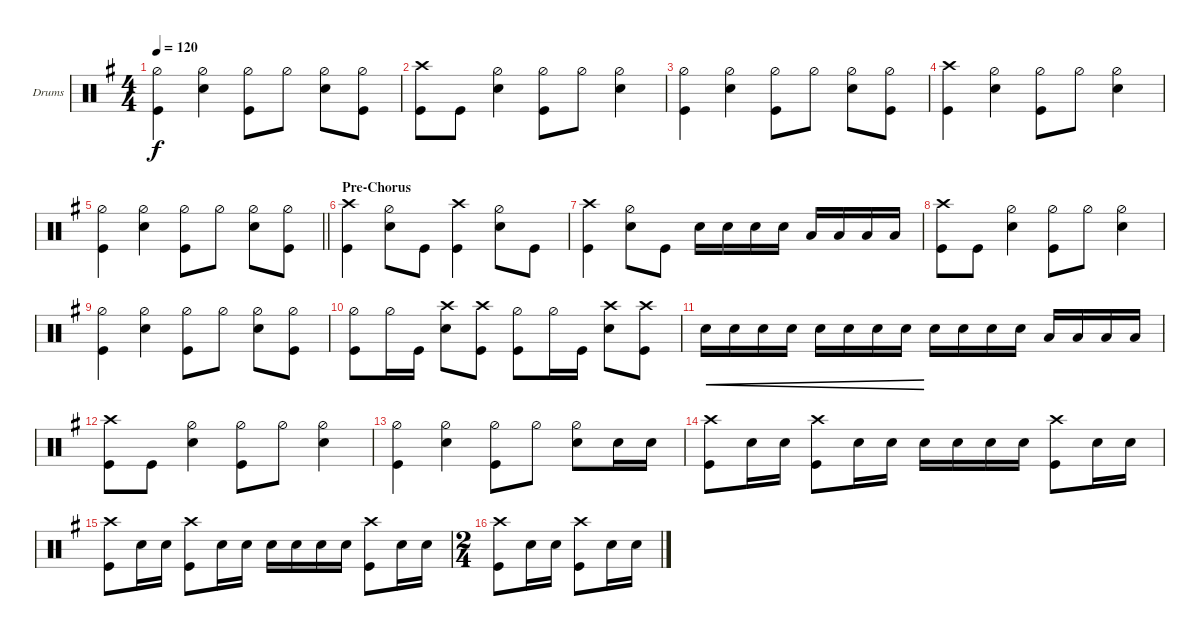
\defaultSystemsLayout 4
\bracketExtendMode groupsimilarinstruments
\firstSystemTrackNameOrientation horizontal
\otherSystemsTrackNameOrientation horizontal
\track ("Drums" "Drums") {instrument percussion}
\staff {score}
\articulation defaults
\ts (4 4)
\tempo 120
\clef neutral
\ks g
("Kick (hit)" "Hi-Hat (half)").4{dy f} ("Snare (hit) 2" "Hi-Hat (half)").4 ("Kick (hit)" "Hi-Hat (half)").8 "Hi-Hat (half)".8 ("Snare (hit) 2" "Hi-Hat (half)").8 ("Kick (hit)" "Hi-Hat (half)").8 |
("Kick (hit)" "Crash high (hit)").8 "Kick (hit)".8 ("Snare (hit) 2" "Hi-Hat (half)").4 ("Kick (hit)" "Hi-Hat (half)").8 "Hi-Hat (half)".8 ("Snare (hit) 2" "Hi-Hat (half)").4 |
("Kick (hit)" "Hi-Hat (half)").4 ("Snare (hit) 2" "Hi-Hat (half)").4 ("Kick (hit)" "Hi-Hat (half)").8 "Hi-Hat (half)".8 ("Snare (hit) 2" "Hi-Hat (half)").8 ("Kick (hit)" "Hi-Hat (half)").8 |
("Kick (hit)" "Crash high (hit)").4 ("Snare (hit) 2" "Hi-Hat (half)").4 ("Kick (hit)" "Hi-Hat (half)").8 "Hi-Hat (half)".8 ("Snare (hit) 2" "Hi-Hat (half)").4 |
\barLineRight lightlight
("Kick (hit)" "Hi-Hat (half)").4 ("Snare (hit) 2" "Hi-Hat (half)").4 ("Kick (hit)" "Hi-Hat (half)").8 "Hi-Hat (half)".8 ("Snare (hit) 2" "Hi-Hat (half)").8 ("Kick (hit)" "Hi-Hat (half)").8 |
\section ("" "Pre-Chorus")
("Kick (hit)" "Crash high (hit)").4 ("Hi-Hat (half)" "Snare (hit) 2").8 "Kick (hit)".8 ("Kick (hit)" "Crash high (hit)").4 ("Hi-Hat (half)" "Snare (hit) 2").8 "Kick (hit)".8 |
("Kick (hit)" "Crash high (hit)").4 ("Hi-Hat (half)" "Snare (hit) 2").8 "Kick (hit)".8 "Snare (hit) 2".16 "Snare (hit) 2".16 "Snare (hit) 2".16 "Snare (hit) 2".16 "Low Tom (hit)".16 "Low Tom (hit)".16 "Low Tom (hit)".16 "Low Tom (hit)".16 |
("Kick (hit)" "Crash high (hit)").8 "Kick (hit)".8 ("Snare (hit) 2" "Hi-Hat (half)").4 ("Kick (hit)" "Hi-Hat (half)").8 "Hi-Hat (half)".8 ("Snare (hit) 2" "Hi-Hat (half)").4 |
("Kick (hit)" "Hi-Hat (half)").4 ("Snare (hit) 2" "Hi-Hat (half)").4 ("Kick (hit)" "Hi-Hat (half)").8 "Hi-Hat (half)".8 ("Snare (hit) 2" "Hi-Hat (half)").8 ("Kick (hit)" "Hi-Hat (half)").8 |
("Kick (hit)" "Hi-Hat (half)").8 "Hi-Hat (half)".16 "Kick (hit)".16 ("Snare (hit) 2" "Crash high (hit)").8 ("Crash high (hit)" "Kick (hit)").8 ("Kick (hit)" "Hi-Hat (half)").8 "Hi-Hat (half)".16 "Kick (hit)".16 ("Snare (hit) 2" "Crash high (hit)").8 ("Crash high (hit)" "Kick (hit)").8 |
"Snare (hit) 2".16{cre} "Snare (hit) 2".16{cre} "Snare (hit) 2".16{cre} "Snare (hit) 2".16{cre} "Snare (hit) 2".16{cre} "Snare (hit) 2".16{cre} "Snare (hit) 2".16{cre} "Snare (hit) 2".16{cre} "Snare (hit) 2".16 "Snare (hit) 2".16 "Snare (hit) 2".16 "Snare (hit) 2".16 "Low Tom (hit)".16 "Low Tom (hit)".16 "Low Tom (hit)".16 "Low Tom (hit)".16 |
("Kick (hit)" "Crash high (hit)").8 "Kick (hit)".8 ("Snare (hit) 2" "Hi-Hat (half)").4 ("Kick (hit)" "Hi-Hat (half)").8 "Hi-Hat (half)".8 ("Snare (hit) 2" "Hi-Hat (half)").4 |
("Kick (hit)" "Hi-Hat (half)").4 ("Snare (hit) 2" "Hi-Hat (half)").4 ("Kick (hit)" "Hi-Hat (half)").8 "Hi-Hat (half)".8 ("Snare (hit) 2" "Hi-Hat (half)").8 "Snare (hit) 2".16 "Snare (hit) 2".16 |
("Kick (hit)" "Crash high (hit)").8 "Snare (hit) 2".16 "Snare (hit) 2".16 ("Kick (hit)" "Crash high (hit)").8 "Snare (hit) 2".16 "Snare (hit) 2".16 "Snare (hit) 2".16 "Snare (hit) 2".16 "Snare (hit) 2".16 "Snare (hit) 2".16 ("Kick (hit)" "Crash high (hit)").8 "Snare (hit) 2".16 "Snare (hit) 2".16 |
("Kick (hit)" "Crash high (hit)").8 "Snare (hit) 2".16 "Snare (hit) 2".16 ("Kick (hit)" "Crash high (hit)").8 "Snare (hit) 2".16 "Snare (hit) 2".16 "Snare (hit) 2".16 "Snare (hit) 2".16 "Snare (hit) 2".16 "Snare (hit) 2".16 ("Kick (hit)" "Crash high (hit)").8 "Snare (hit) 2".16 "Snare (hit) 2".16 |
\ts (2 4)
("Kick (hit)" "Crash high (hit)").8 "Snare (hit) 2".16 "Snare (hit) 2".16 ("Kick (hit)" "Crash high (hit)").8 "Snare (hit) 2".16 "Snare (hit) 2".16
